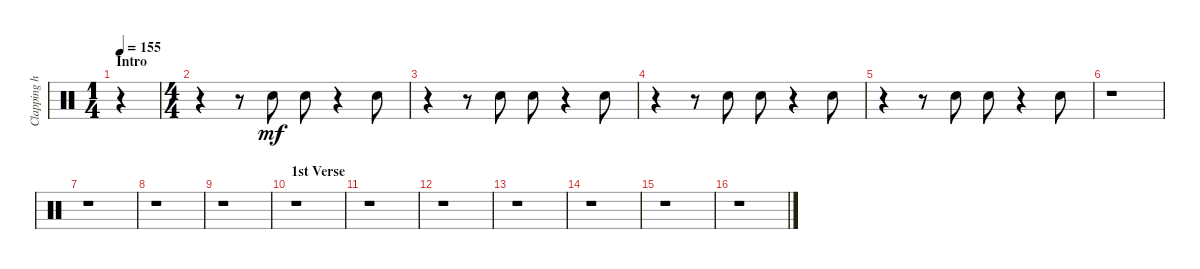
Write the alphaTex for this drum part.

\track ("Clapping hands" "Clapping h") {instrument percussion}
\staff {score}
\articulation defaults
\ts (1 4)
\section ("" "Intro")
\tempo 155
\clef neutral
\ks c
r.4{dy mf} |
\ts (4 4)
r.4 r.8 "Hand Clap (hit)".8 "Hand Clap (hit)".8 r.4 "Hand Clap (hit)".8 |
r.4 r.8 "Hand Clap (hit)".8 "Hand Clap (hit)".8 r.4 "Hand Clap (hit)".8 |
r.4 r.8 "Hand Clap (hit)".8 "Hand Clap (hit)".8 r.4 "Hand Clap (hit)".8 |
r.4 r.8 "Hand Clap (hit)".8 "Hand Clap (hit)".8 r.4 "Hand Clap (hit)".8 |
r.1 |
r.1 |
r.1 |
r.1 |
\section ("" "1st Verse")
r.1 |
r.1 |
r.1 |
r.1 |
r.1 |
r.1 |
r.1
